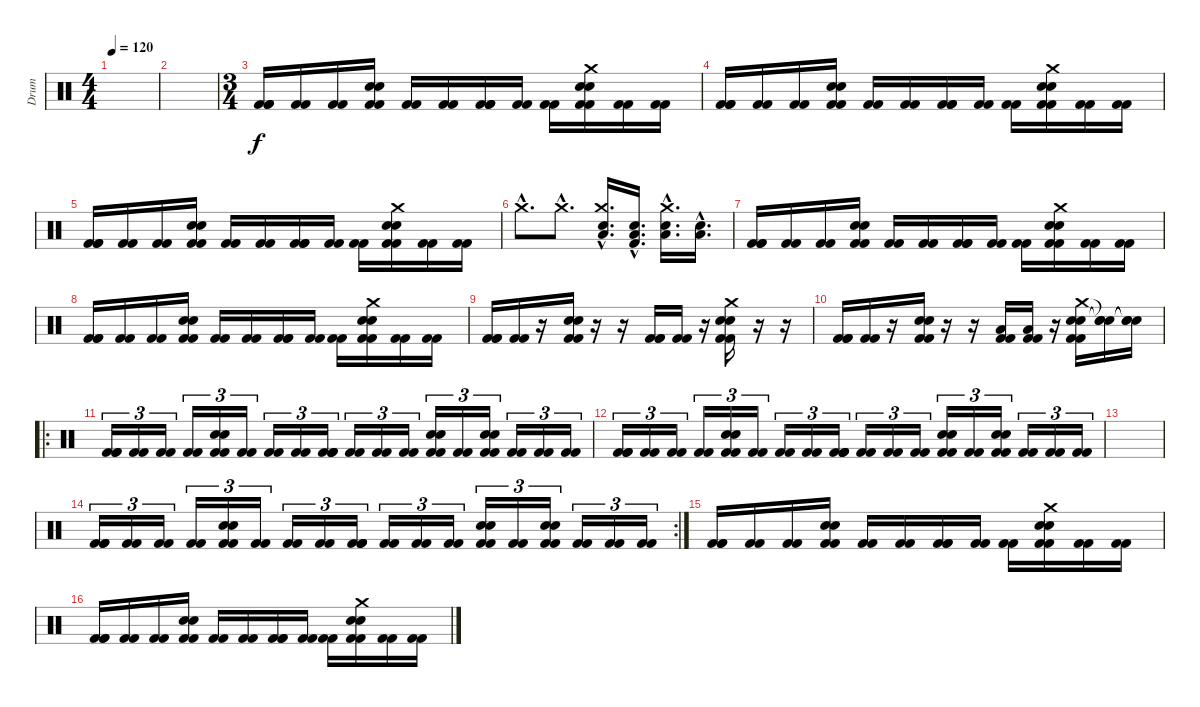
\track ("Drum" "Drum") {instrument percussion}
\staff {score}
\articulation defaults
\ts (4 4)
\tempo 120
\clef neutral
\ks c
|
|
\ts (3 4)
("Kick (hit) 2" "Kick (hit) 2" "Kick (hit) 2").16 ("Kick (hit) 2" "Kick (hit) 2").16 ("Kick (hit) 2" "Kick (hit) 2").16 ("Electric Snare (hit)" "Electric Snare (hit)" "Kick (hit) 2" "Kick (hit) 2").16 ("Kick (hit) 2" "Kick (hit) 2").16 ("Kick (hit) 2" "Kick (hit) 2").16 ("Kick (hit) 2" "Kick (hit) 2" "Kick (hit) 2").16 ("Kick (hit) 2" "Kick (hit) 2").16 ("Kick (hit) 2" "Kick (hit) 2").16 ("Electric Snare (hit)" "Electric Snare (hit)" "Crash medium (hit)" "Kick (hit) 2" "Kick (hit) 2").16 ("Kick (hit) 2" "Kick (hit) 2").16 ("Kick (hit) 2" "Kick (hit) 2").16 |
("Kick (hit) 2" "Kick (hit) 2" "Kick (hit) 2").16 ("Kick (hit) 2" "Kick (hit) 2").16 ("Kick (hit) 2" "Kick (hit) 2").16 ("Electric Snare (hit)" "Electric Snare (hit)" "Kick (hit) 2" "Kick (hit) 2").16 ("Kick (hit) 2" "Kick (hit) 2").16 ("Kick (hit) 2" "Kick (hit) 2").16 ("Kick (hit) 2" "Kick (hit) 2" "Kick (hit) 2").16 ("Kick (hit) 2" "Kick (hit) 2").16 ("Kick (hit) 2" "Kick (hit) 2").16 ("Electric Snare (hit)" "Electric Snare (hit)" "Crash medium (hit)" "Kick (hit) 2" "Kick (hit) 2").16 ("Kick (hit) 2" "Kick (hit) 2").16 ("Kick (hit) 2" "Kick (hit) 2").16 |
("Kick (hit) 2" "Kick (hit) 2" "Kick (hit) 2").16 ("Kick (hit) 2" "Kick (hit) 2").16 ("Kick (hit) 2" "Kick (hit) 2").16 ("Electric Snare (hit)" "Electric Snare (hit)" "Kick (hit) 2" "Kick (hit) 2").16 ("Kick (hit) 2" "Kick (hit) 2").16 ("Kick (hit) 2" "Kick (hit) 2").16 ("Kick (hit) 2" "Kick (hit) 2" "Kick (hit) 2").16 ("Kick (hit) 2" "Kick (hit) 2").16 ("Kick (hit) 2" "Kick (hit) 2").16 ("Electric Snare (hit)" "Electric Snare (hit)" "Crash medium (hit)" "Kick (hit) 2" "Kick (hit) 2").16 ("Kick (hit) 2" "Kick (hit) 2").16 ("Kick (hit) 2" "Kick (hit) 2").16 |
"Crash medium (hit)"{hac}.8{d} "Crash medium (hit)"{hac}.8{d} ("Crash medium (hit)"{hac} "Electric Snare (hit)"{hac} "Low Tom (hit)"{hac}).16{d} ("Electric Snare (hit)"{hac} "Low Tom (hit)"{hac} "Kick (hit) 2"{hac}).16{d} ("Crash medium (hit)"{hac} "Electric Snare (hit)"{hac} "Low Tom (hit)"{hac}).16{d} ("Electric Snare (hit)"{hac} "Low Tom (hit)"{hac}).16{d} |
("Kick (hit) 2" "Kick (hit) 2" "Kick (hit) 2").16 ("Kick (hit) 2" "Kick (hit) 2").16 ("Kick (hit) 2" "Kick (hit) 2").16 ("Electric Snare (hit)" "Electric Snare (hit)" "Kick (hit) 2" "Kick (hit) 2").16 ("Kick (hit) 2" "Kick (hit) 2").16 ("Kick (hit) 2" "Kick (hit) 2").16 ("Kick (hit) 2" "Kick (hit) 2" "Kick (hit) 2").16 ("Kick (hit) 2" "Kick (hit) 2").16 ("Kick (hit) 2" "Kick (hit) 2").16 ("Electric Snare (hit)" "Electric Snare (hit)" "Crash medium (hit)" "Kick (hit) 2" "Kick (hit) 2").16 ("Kick (hit) 2" "Kick (hit) 2").16 ("Kick (hit) 2" "Kick (hit) 2").16 |
("Kick (hit) 2" "Kick (hit) 2" "Kick (hit) 2").16 ("Kick (hit) 2" "Kick (hit) 2").16 ("Kick (hit) 2" "Kick (hit) 2").16 ("Electric Snare (hit)" "Electric Snare (hit)" "Kick (hit) 2" "Kick (hit) 2").16 ("Kick (hit) 2" "Kick (hit) 2").16 ("Kick (hit) 2" "Kick (hit) 2").16 ("Kick (hit) 2" "Kick (hit) 2" "Kick (hit) 2").16 ("Kick (hit) 2" "Kick (hit) 2").16 ("Kick (hit) 2" "Kick (hit) 2").16 ("Electric Snare (hit)" "Electric Snare (hit)" "Crash medium (hit)" "Kick (hit) 2" "Kick (hit) 2").16 ("Kick (hit) 2" "Kick (hit) 2").16 ("Kick (hit) 2" "Kick (hit) 2").16 |
("Kick (hit) 2" "Kick (hit) 2" "Kick (hit) 2").16 ("Kick (hit) 2" "Kick (hit) 2").16 r.16 ("Electric Snare (hit)" "Electric Snare (hit)" "Kick (hit) 2" "Kick (hit) 2").16 r.16 r.16 ("Kick (hit) 2" "Kick (hit) 2" "Kick (hit) 2").16 ("Kick (hit) 2" "Kick (hit) 2").16 r.16 ("Electric Snare (hit)" "Electric Snare (hit)" "Crash medium (hit)" "Kick (hit) 2" "Kick (hit) 2").16 r.16 r.16 |
("Kick (hit) 2" "Kick (hit) 2" "Kick (hit) 2").16 ("Kick (hit) 2" "Kick (hit) 2").16 r.16 ("Electric Snare (hit)" "Electric Snare (hit)" "Kick (hit) 2" "Kick (hit) 2").16 r.16 r.16 ("Low Tom (hit)" "Kick (hit) 2" "Kick (hit) 2").16 ("Low Tom (hit)" "Kick (hit) 2" "Kick (hit) 2").16 r.16 ("Electric Snare (hit)" "Electric Snare (hit)" "Crash medium (hit)" "Kick (hit) 2" "Kick (hit) 2").16 ("Snare (hit)"{t} "Snare (hit)"{t} "Snare (hit)"{t}).16 ("Snare (hit)"{t} "Snare (hit)"{t} "Snare (hit)"{t}).16 |
\ro
("Kick (hit) 2" "Kick (hit) 2" "Kick (hit) 2").16{tu (3 2)} ("Kick (hit) 2" "Kick (hit) 2").16{tu (3 2)} ("Kick (hit) 2" "Kick (hit) 2").16{tu (3 2)} ("Kick (hit) 2" "Kick (hit) 2").16{tu (3 2)} ("Electric Snare (hit)" "Electric Snare (hit)" "Kick (hit) 2" "Kick (hit) 2").16{tu (3 2)} ("Kick (hit) 2" "Kick (hit) 2").16{tu (3 2)} ("Kick (hit) 2" "Kick (hit) 2").16{tu (3 2)} ("Kick (hit) 2" "Kick (hit) 2").16{tu (3 2)} ("Kick (hit) 2" "Kick (hit) 2" "Kick (hit) 2" "Kick (hit) 2").16{tu (3 2)} ("Kick (hit) 2" "Kick (hit) 2").16{tu (3 2)} ("Kick (hit) 2" "Kick (hit) 2").16{tu (3 2)} ("Kick (hit) 2" "Kick (hit) 2").16{tu (3 2)} ("Electric Snare (hit)" "Electric Snare (hit)" "Kick (hit) 2" "Kick (hit) 2").16{tu (3 2)} ("Kick (hit) 2" "Kick (hit) 2").16{tu (3 2)} ("Electric Snare (hit)" "Electric Snare (hit)" "Kick (hit) 2" "Kick (hit) 2").16{tu (3 2)} ("Kick (hit) 2" "Kick (hit) 2").16{tu (3 2)} ("Kick (hit) 2" "Kick (hit) 2").16{tu (3 2)} ("Kick (hit) 2" "Kick (hit) 2").16{tu (3 2)} |
("Kick (hit) 2" "Kick (hit) 2" "Kick (hit) 2").16{tu (3 2)} ("Kick (hit) 2" "Kick (hit) 2").16{tu (3 2)} ("Kick (hit) 2" "Kick (hit) 2").16{tu (3 2)} ("Kick (hit) 2" "Kick (hit) 2").16{tu (3 2)} ("Electric Snare (hit)" "Electric Snare (hit)" "Kick (hit) 2" "Kick (hit) 2").16{tu (3 2)} ("Kick (hit) 2" "Kick (hit) 2").16{tu (3 2)} ("Kick (hit) 2" "Kick (hit) 2").16{tu (3 2)} ("Kick (hit) 2" "Kick (hit) 2").16{tu (3 2)} ("Kick (hit) 2" "Kick (hit) 2" "Kick (hit) 2" "Kick (hit) 2").16{tu (3 2)} ("Kick (hit) 2" "Kick (hit) 2").16{tu (3 2)} ("Kick (hit) 2" "Kick (hit) 2").16{tu (3 2)} ("Kick (hit) 2" "Kick (hit) 2").16{tu (3 2)} ("Electric Snare (hit)" "Electric Snare (hit)" "Kick (hit) 2" "Kick (hit) 2").16{tu (3 2)} ("Kick (hit) 2" "Kick (hit) 2").16{tu (3 2)} ("Electric Snare (hit)" "Electric Snare (hit)" "Kick (hit) 2" "Kick (hit) 2").16{tu (3 2)} ("Kick (hit) 2" "Kick (hit) 2").16{tu (3 2)} ("Kick (hit) 2" "Kick (hit) 2").16{tu (3 2)} ("Kick (hit) 2" "Kick (hit) 2").16{tu (3 2)} |
|
\rc 2
("Kick (hit) 2" "Kick (hit) 2" "Kick (hit) 2").16{tu (3 2)} ("Kick (hit) 2" "Kick (hit) 2").16{tu (3 2)} ("Kick (hit) 2" "Kick (hit) 2").16{tu (3 2)} ("Kick (hit) 2" "Kick (hit) 2").16{tu (3 2)} ("Electric Snare (hit)" "Electric Snare (hit)" "Kick (hit) 2" "Kick (hit) 2").16{tu (3 2)} ("Kick (hit) 2" "Kick (hit) 2").16{tu (3 2)} ("Kick (hit) 2" "Kick (hit) 2").16{tu (3 2)} ("Kick (hit) 2" "Kick (hit) 2").16{tu (3 2)} ("Kick (hit) 2" "Kick (hit) 2" "Kick (hit) 2" "Kick (hit) 2").16{tu (3 2)} ("Kick (hit) 2" "Kick (hit) 2").16{tu (3 2)} ("Kick (hit) 2" "Kick (hit) 2").16{tu (3 2)} ("Kick (hit) 2" "Kick (hit) 2").16{tu (3 2)} ("Electric Snare (hit)" "Electric Snare (hit)" "Kick (hit) 2" "Kick (hit) 2").16{tu (3 2)} ("Kick (hit) 2" "Kick (hit) 2").16{tu (3 2)} ("Electric Snare (hit)" "Electric Snare (hit)" "Kick (hit) 2" "Kick (hit) 2").16{tu (3 2)} ("Kick (hit) 2" "Kick (hit) 2").16{tu (3 2)} ("Kick (hit) 2" "Kick (hit) 2").16{tu (3 2)} ("Kick (hit) 2" "Kick (hit) 2").16{tu (3 2)} |
("Kick (hit) 2" "Kick (hit) 2" "Kick (hit) 2").16 ("Kick (hit) 2" "Kick (hit) 2").16 ("Kick (hit) 2" "Kick (hit) 2").16 ("Electric Snare (hit)" "Electric Snare (hit)" "Kick (hit) 2" "Kick (hit) 2").16 ("Kick (hit) 2" "Kick (hit) 2").16 ("Kick (hit) 2" "Kick (hit) 2").16 ("Kick (hit) 2" "Kick (hit) 2" "Kick (hit) 2").16 ("Kick (hit) 2" "Kick (hit) 2").16 ("Kick (hit) 2" "Kick (hit) 2").16 ("Electric Snare (hit)" "Electric Snare (hit)" "Crash medium (hit)" "Kick (hit) 2" "Kick (hit) 2").16 ("Kick (hit) 2" "Kick (hit) 2").16 ("Kick (hit) 2" "Kick (hit) 2").16 |
("Kick (hit) 2" "Kick (hit) 2" "Kick (hit) 2").16 ("Kick (hit) 2" "Kick (hit) 2").16 ("Kick (hit) 2" "Kick (hit) 2").16 ("Electric Snare (hit)" "Electric Snare (hit)" "Kick (hit) 2" "Kick (hit) 2").16 ("Kick (hit) 2" "Kick (hit) 2").16 ("Kick (hit) 2" "Kick (hit) 2").16 ("Kick (hit) 2" "Kick (hit) 2" "Kick (hit) 2").16 ("Kick (hit) 2" "Kick (hit) 2").16 ("Kick (hit) 2" "Kick (hit) 2").16 ("Electric Snare (hit)" "Electric Snare (hit)" "Crash medium (hit)" "Kick (hit) 2" "Kick (hit) 2").16 ("Kick (hit) 2" "Kick (hit) 2").16 ("Kick (hit) 2" "Kick (hit) 2").16
